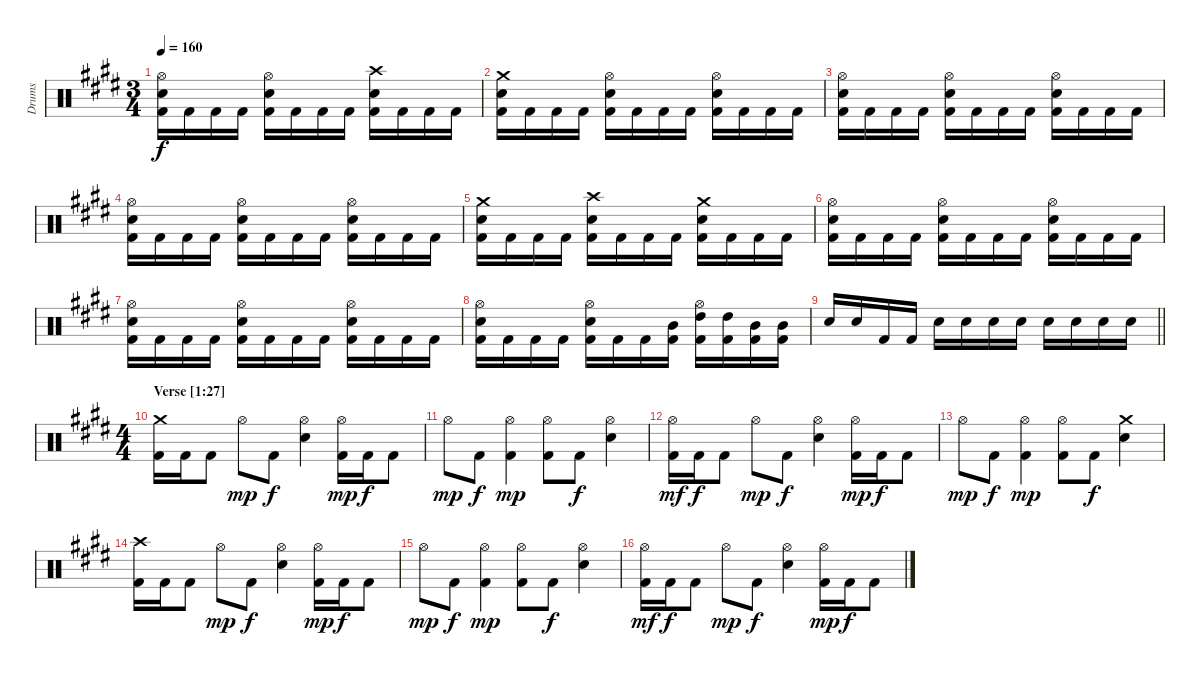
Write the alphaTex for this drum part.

\track ("Drums" "Drums") {instrument percussion}
\staff {score}
\articulation defaults
\ts (3 4)
\tempo 160
\clef neutral
\ks c#minor
("Hi-Hat (open)" "Snare (hit) 2" "Kick (hit) 2").16{dy f} "Kick (hit) 2".16 "Kick (hit) 2".16 "Kick (hit) 2".16 ("Hi-Hat (open)" "Snare (hit) 2" "Kick (hit) 2").16 "Kick (hit) 2".16 "Kick (hit) 2".16 "Kick (hit) 2".16 ("Crash high (hit)" "Snare (hit) 2" "Kick (hit) 2").16 "Kick (hit) 2".16 "Kick (hit) 2".16 "Kick (hit) 2".16 |
("Crash medium (hit)" "Snare (hit) 2" "Kick (hit) 2").16 "Kick (hit) 2".16 "Kick (hit) 2".16 "Kick (hit) 2".16 ("Hi-Hat (open)" "Snare (hit) 2" "Kick (hit) 2").16 "Kick (hit) 2".16 "Kick (hit) 2".16 "Kick (hit) 2".16 ("Hi-Hat (open)" "Snare (hit) 2" "Kick (hit) 2").16 "Kick (hit) 2".16 "Kick (hit) 2".16 "Kick (hit) 2".16 |
("Hi-Hat (open)" "Snare (hit) 2" "Kick (hit) 2").16 "Kick (hit) 2".16 "Kick (hit) 2".16 "Kick (hit) 2".16 ("Hi-Hat (open)" "Snare (hit) 2" "Kick (hit) 2").16 "Kick (hit) 2".16 "Kick (hit) 2".16 "Kick (hit) 2".16 ("Hi-Hat (open)" "Snare (hit) 2" "Kick (hit) 2").16 "Kick (hit) 2".16 "Kick (hit) 2".16 "Kick (hit) 2".16 |
("Hi-Hat (open)" "Snare (hit) 2" "Kick (hit) 2").16 "Kick (hit) 2".16 "Kick (hit) 2".16 "Kick (hit) 2".16 ("Hi-Hat (open)" "Snare (hit) 2" "Kick (hit) 2").16 "Kick (hit) 2".16 "Kick (hit) 2".16 "Kick (hit) 2".16 ("Hi-Hat (open)" "Snare (hit) 2" "Kick (hit) 2").16 "Kick (hit) 2".16 "Kick (hit) 2".16 "Kick (hit) 2".16 |
("Crash medium (hit)" "Snare (hit) 2" "Kick (hit) 2").16 "Kick (hit) 2".16 "Kick (hit) 2".16 "Kick (hit) 2".16 ("Crash high (hit)" "Snare (hit) 2" "Kick (hit) 2").16 "Kick (hit) 2".16 "Kick (hit) 2".16 "Kick (hit) 2".16 ("Crash medium (hit)" "Snare (hit) 2" "Kick (hit) 2").16 "Kick (hit) 2".16 "Kick (hit) 2".16 "Kick (hit) 2".16 |
("Hi-Hat (open)" "Snare (hit) 2" "Kick (hit) 2").16 "Kick (hit) 2".16 "Kick (hit) 2".16 "Kick (hit) 2".16 ("Hi-Hat (open)" "Snare (hit) 2" "Kick (hit) 2").16 "Kick (hit) 2".16 "Kick (hit) 2".16 "Kick (hit) 2".16 ("Hi-Hat (open)" "Snare (hit) 2" "Kick (hit) 2").16 "Kick (hit) 2".16 "Kick (hit) 2".16 "Kick (hit) 2".16 |
("Hi-Hat (open)" "Snare (hit) 2" "Kick (hit) 2").16 "Kick (hit) 2".16 "Kick (hit) 2".16 "Kick (hit) 2".16 ("Hi-Hat (open)" "Snare (hit) 2" "Kick (hit) 2").16 "Kick (hit) 2".16 "Kick (hit) 2".16 "Kick (hit) 2".16 ("Hi-Hat (open)" "Snare (hit) 2" "Kick (hit) 2").16 "Kick (hit) 2".16 "Kick (hit) 2".16 "Kick (hit) 2".16 |
("Hi-Hat (open)" "Snare (hit) 2" "Kick (hit) 2").16 "Kick (hit) 2".16 "Kick (hit) 2".16 "Kick (hit) 2".16 ("Hi-Hat (open)" "Snare (hit) 2" "Kick (hit) 2").16 "Kick (hit) 2".16 "Kick (hit) 2".16 ("Mid Tom (hit)" "Kick (hit) 2").16 ("Hi-Hat (open)" "High Tom (hit)" "Kick (hit) 2").16 ("High Tom (hit)" "Kick (hit) 2").16 ("Mid Tom (hit)" "Kick (hit) 2").16 ("Mid Tom (hit)" "Kick (hit) 2").16 |
\barLineRight lightlight "Snare (hit) 2".16 "Snare (hit) 2".16 "Kick (hit) 2".16 "Kick (hit) 2".16 "Snare (hit) 2".16 "Snare (hit) 2".16 "Snare (hit) 2".16 "Snare (hit) 2".16 "Snare (hit) 2".16 "Snare (hit) 2".16 "Snare (hit) 2".16 "Snare (hit) 2".16
|
\ts (4 4)
\section ("" "Verse [1:27]")
("Crash medium (hit)" "Kick (hit) 2").16 "Kick (hit) 2".16 "Kick (hit) 2".8 "Hi-Hat (open)".8{dy mp} "Kick (hit) 2".8{dy f} ("Hi-Hat (open)" "Snare (hit) 2").4 ("Hi-Hat (open)" "Kick (hit) 2").16{dy mp} "Kick (hit) 2".16{dy f} "Kick (hit) 2".8 |
"Hi-Hat (open)".8{dy mp} "Kick (hit) 2".8{dy f} ("Hi-Hat (open)" "Kick (hit) 2").4{dy mp} ("Hi-Hat (open)" "Kick (hit) 2").8 "Kick (hit) 2".8{dy f} ("Hi-Hat (open)" "Snare (hit) 2").4 |
("Hi-Hat (open)" "Kick (hit) 2").16{dy mf} "Kick (hit) 2".16{dy f} "Kick (hit) 2".8 "Hi-Hat (open)".8{dy mp} "Kick (hit) 2".8{dy f} ("Hi-Hat (open)" "Snare (hit) 2").4 ("Hi-Hat (open)" "Kick (hit) 2").16{dy mp} "Kick (hit) 2".16{dy f} "Kick (hit) 2".8 |
"Hi-Hat (open)".8{dy mp} "Kick (hit) 2".8{dy f} ("Hi-Hat (open)" "Kick (hit) 2").4{dy mp} ("Hi-Hat (open)" "Kick (hit) 2").8 "Kick (hit) 2".8{dy f} ("Crash medium (hit)" "Snare (hit) 2").4 |
("Crash high (hit)" "Kick (hit) 2").16 "Kick (hit) 2".16 "Kick (hit) 2".8 "Hi-Hat (open)".8{dy mp} "Kick (hit) 2".8{dy f} ("Hi-Hat (open)" "Snare (hit) 2").4 ("Hi-Hat (open)" "Kick (hit) 2").16{dy mp} "Kick (hit) 2".16{dy f} "Kick (hit) 2".8 |
"Hi-Hat (open)".8{dy mp} "Kick (hit) 2".8{dy f} ("Hi-Hat (open)" "Kick (hit) 2").4{dy mp} ("Hi-Hat (open)" "Kick (hit) 2").8 "Kick (hit) 2".8{dy f} ("Hi-Hat (open)" "Snare (hit) 2").4 |
("Hi-Hat (open)" "Kick (hit) 2").16{dy mf} "Kick (hit) 2".16{dy f} "Kick (hit) 2".8 "Hi-Hat (open)".8{dy mp} "Kick (hit) 2".8{dy f} ("Hi-Hat (open)" "Snare (hit) 2").4 ("Hi-Hat (open)" "Kick (hit) 2").16{dy mp} "Kick (hit) 2".16{dy f} "Kick (hit) 2".8
